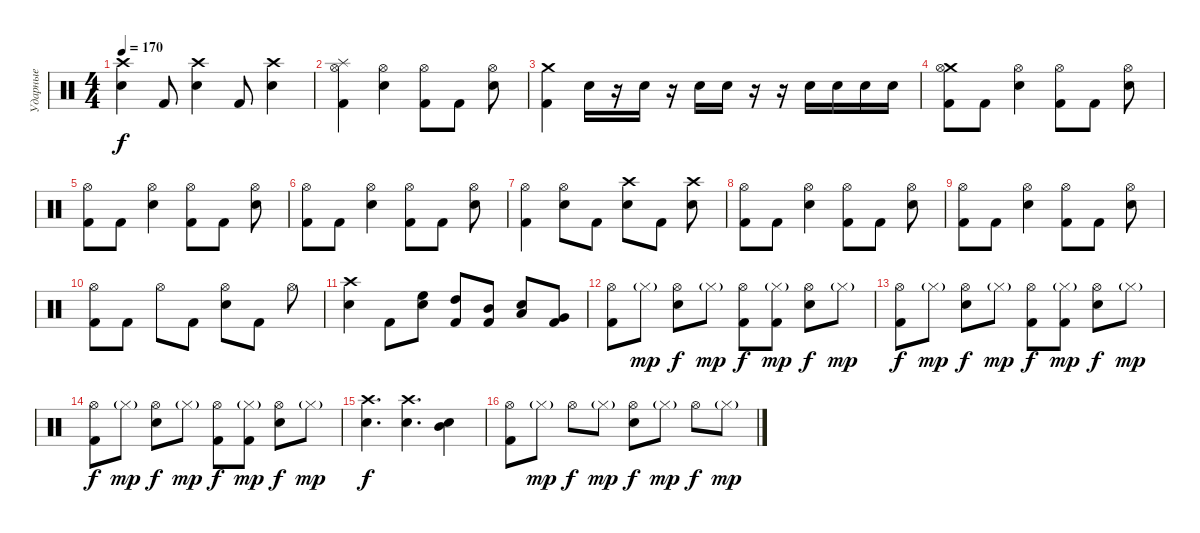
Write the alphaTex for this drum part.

\track ("Ударные" "Ударные") {instrument percussion}
\staff {score}
\articulation defaults
\ts (4 4)
\tempo 170
\clef neutral
\ks c
("Crash high (hit)" "Snare (hit) 2").4{dy f} "Kick (hit) 2".8 ("Crash high (hit)" "Snare (hit) 2").4 "Kick (hit) 2".8 ("Crash high (hit)" "Snare (hit) 2").4 |
("Splash (hit)" "Hi-Hat (open)" "Kick (hit) 2").4 ("Hi-Hat (open)" "Snare (hit) 2").4 ("Hi-Hat (open)" "Kick (hit) 2").8 "Kick (hit) 2".8 ("Hi-Hat (open)" "Snare (hit) 2").8 |
("Crash medium (hit)" "Kick (hit) 2").4 "Snare (hit) 2".16 r.16 "Snare (hit) 2".16 r.16 "Snare (hit) 2".16 "Snare (hit) 2".16 r.16 r.16 "Snare (hit) 2".16 "Snare (hit) 2".16 "Snare (hit) 2".16 "Snare (hit) 2".16 |
("Crash medium (hit)" "Hi-Hat (open)" "Kick (hit) 2").8 "Kick (hit) 2".8 ("Hi-Hat (open)" "Snare (hit) 2").4 ("Hi-Hat (open)" "Kick (hit) 2").8 "Kick (hit) 2".8 ("Hi-Hat (open)" "Snare (hit) 2").8 |
("Hi-Hat (open)" "Kick (hit) 2").8 "Kick (hit) 2".8 ("Hi-Hat (open)" "Snare (hit) 2").4 ("Hi-Hat (open)" "Kick (hit) 2").8 "Kick (hit) 2".8 ("Hi-Hat (open)" "Snare (hit) 2").8 |
("Hi-Hat (open)" "Kick (hit) 2").8 "Kick (hit) 2".8 ("Hi-Hat (open)" "Snare (hit) 2").4 ("Hi-Hat (open)" "Kick (hit) 2").8 "Kick (hit) 2".8 ("Hi-Hat (open)" "Snare (hit) 2").8 |
("Hi-Hat (open)" "Kick (hit) 2").4 ("Hi-Hat (open)" "Snare (hit) 2").8 "Kick (hit) 2".8 ("Crash high (hit)" "Snare (hit) 2").8 "Kick (hit) 2".8 ("Crash high (hit)" "Snare (hit) 2").8 |
("Hi-Hat (open)" "Kick (hit) 2").8 "Kick (hit) 2".8 ("Hi-Hat (open)" "Snare (hit) 2").4 ("Hi-Hat (open)" "Kick (hit) 2").8 "Kick (hit) 2".8 ("Hi-Hat (open)" "Snare (hit) 2").8 |
("Hi-Hat (open)" "Kick (hit) 2").8 "Kick (hit) 2".8 ("Hi-Hat (open)" "Snare (hit) 2").4 ("Hi-Hat (open)" "Kick (hit) 2").8 "Kick (hit) 2".8 ("Hi-Hat (open)" "Snare (hit) 2").8 |
("Hi-Hat (open)" "Kick (hit) 2").8 "Kick (hit) 2".8 "Hi-Hat (open)".8 "Kick (hit) 2".8 ("Hi-Hat (open)" "Snare (hit) 2").8 "Kick (hit) 2".8 "Hi-Hat (open)".8 |
("Crash high (hit)" "Snare (hit) 2").4 "Kick (hit) 2".8 ("High Floor Tom (hit)" "Snare (hit) 2").8 ("High Tom (hit)" "Kick (hit) 2").8 ("Mid Tom (hit)" "Kick (hit) 2").8 ("Low Tom (hit)" "Snare (hit) 2").8 ("Very Low Tom (hit)" "Kick (hit) 2").8 |
("Hi-Hat (open)" "Kick (hit) 2").8 "Hi-Hat (closed)"{g}.8{dy mp} ("Hi-Hat (open)" "Snare (hit) 2").8{dy f} "Hi-Hat (closed)"{g}.8{dy mp} ("Hi-Hat (open)" "Kick (hit) 2").8{dy f} ("Hi-Hat (closed)"{g} "Kick (hit) 2").8{dy mp} ("Hi-Hat (open)" "Snare (hit) 2").8{dy f} "Hi-Hat (closed)"{g}.8{dy mp} |
("Hi-Hat (open)" "Kick (hit) 2").8{dy f} "Hi-Hat (closed)"{g}.8{dy mp} ("Hi-Hat (open)" "Snare (hit) 2").8{dy f} "Hi-Hat (closed)"{g}.8{dy mp} ("Hi-Hat (open)" "Kick (hit) 2").8{dy f} ("Hi-Hat (closed)"{g} "Kick (hit) 2").8{dy mp} ("Hi-Hat (open)" "Snare (hit) 2").8{dy f} "Hi-Hat (closed)"{g}.8{dy mp} |
("Hi-Hat (open)" "Kick (hit) 2").8{dy f} "Hi-Hat (closed)"{g}.8{dy mp} ("Hi-Hat (open)" "Snare (hit) 2").8{dy f} "Hi-Hat (closed)"{g}.8{dy mp} ("Hi-Hat (open)" "Kick (hit) 2").8{dy f} ("Hi-Hat (closed)"{g} "Kick (hit) 2").8{dy mp} ("Hi-Hat (open)" "Snare (hit) 2").8{dy f} "Hi-Hat (closed)"{g}.8{dy mp} |
("Crash high (hit)" "Snare (hit) 2").4{d dy f} ("Crash high (hit)" "Snare (hit) 2").4{d} ("Mid Tom (hit)" "Snare (hit) 2").4 |
("Hi-Hat (open)" "Kick (hit) 2").8 "Hi-Hat (closed)"{g}.8{dy mp} "Hi-Hat (open)".8{dy f} "Hi-Hat (closed)"{g}.8{dy mp} ("Hi-Hat (open)" "Snare (hit) 2").8{dy f} "Hi-Hat (closed)"{g}.8{dy mp} "Hi-Hat (open)".8{dy f} "Hi-Hat (closed)"{g}.8{dy mp}
